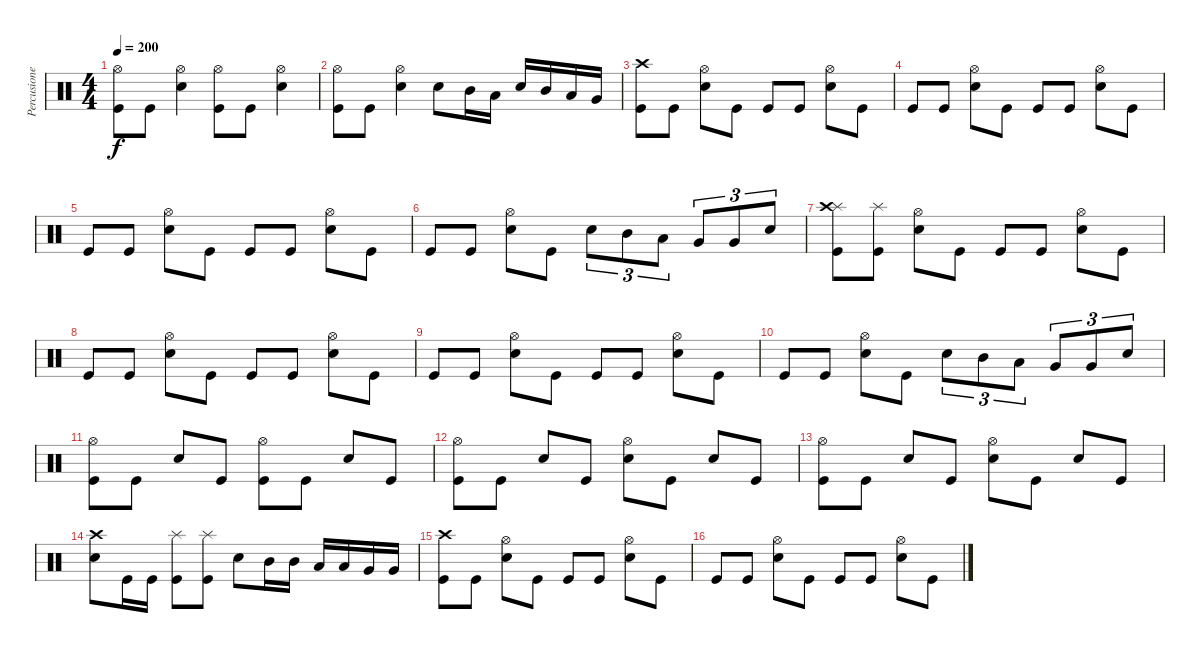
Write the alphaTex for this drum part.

\track ("Percusiones" "Percusione") {instrument percussion}
\staff {score}
\articulation defaults
\ts (4 4)
\tempo 200
\clef neutral
\ks c
("Kick (hit)" "Hi-Hat (open)").8{dy f} "Kick (hit)".8 ("Electric Snare (hit)" "Hi-Hat (open)").4 ("Kick (hit)" "Hi-Hat (open)").8 "Kick (hit)".8 ("Electric Snare (hit)" "Hi-Hat (open)").4 |
("Kick (hit)" "Hi-Hat (open)").8 "Kick (hit)".8 ("Electric Snare (hit)" "Hi-Hat (open)").4 "Electric Snare (hit)".8 "Mid Tom (hit)".16 "Low Tom (hit)".16 "Electric Snare (hit)".16 "Mid Tom (hit)".16 "Low Tom (hit)".16 "Very Low Tom (hit)".16 |
("Crash high (hit)" "Kick (hit)").8 "Kick (hit)".8 ("Hi-Hat (open)" "Electric Snare (hit)").8 "Kick (hit)".8 "Kick (hit)".8 "Kick (hit)".8 ("Hi-Hat (open)" "Electric Snare (hit)").8 "Kick (hit)".8 |
"Kick (hit)".8 "Kick (hit)".8 ("Hi-Hat (open)" "Electric Snare (hit)").8 "Kick (hit)".8 "Kick (hit)".8 "Kick (hit)".8 ("Hi-Hat (open)" "Electric Snare (hit)").8 "Kick (hit)".8 |
"Kick (hit)".8 "Kick (hit)".8 ("Hi-Hat (open)" "Electric Snare (hit)").8 "Kick (hit)".8 "Kick (hit)".8 "Kick (hit)".8 ("Hi-Hat (open)" "Electric Snare (hit)").8 "Kick (hit)".8 |
"Kick (hit)".8 "Kick (hit)".8 ("Hi-Hat (open)" "Electric Snare (hit)").8 "Kick (hit)".8 "Electric Snare (hit)".8{tu (3 2)} "Mid Tom (hit)".8{tu (3 2)} "Low Tom (hit)".8{tu (3 2)} "Very Low Tom (hit)".8{tu (3 2)} "Very Low Tom (hit)".8{tu (3 2)} "Electric Snare (hit)".8{tu (3 2)} |
("Splash (hit)" "Kick (hit)" "Crash high (hit)").8 ("Splash (hit)" "Kick (hit)").8 ("Hi-Hat (open)" "Electric Snare (hit)").8 "Kick (hit)".8 "Kick (hit)".8 "Kick (hit)".8 ("Hi-Hat (open)" "Electric Snare (hit)").8 "Kick (hit)".8 |
"Kick (hit)".8 "Kick (hit)".8 ("Hi-Hat (open)" "Electric Snare (hit)").8 "Kick (hit)".8 "Kick (hit)".8 "Kick (hit)".8 ("Hi-Hat (open)" "Electric Snare (hit)").8 "Kick (hit)".8 |
"Kick (hit)".8 "Kick (hit)".8 ("Hi-Hat (open)" "Electric Snare (hit)").8 "Kick (hit)".8 "Kick (hit)".8 "Kick (hit)".8 ("Hi-Hat (open)" "Electric Snare (hit)").8 "Kick (hit)".8 |
"Kick (hit)".8 "Kick (hit)".8 ("Hi-Hat (open)" "Electric Snare (hit)").8 "Kick (hit)".8 "Electric Snare (hit)".8{tu (3 2)} "Mid Tom (hit)".8{tu (3 2)} "Low Tom (hit)".8{tu (3 2)} "Very Low Tom (hit)".8{tu (3 2)} "Very Low Tom (hit)".8{tu (3 2)} "Electric Snare (hit)".8{tu (3 2)} |
("Hi-Hat (open)" "Kick (hit)").8 "Kick (hit)".8 "Electric Snare (hit)".8 "Kick (hit)".8 ("Hi-Hat (open)" "Kick (hit)").8 "Kick (hit)".8 "Electric Snare (hit)".8 "Kick (hit)".8 |
("Hi-Hat (open)" "Kick (hit)").8 "Kick (hit)".8 "Electric Snare (hit)".8 "Kick (hit)".8 ("Hi-Hat (open)" "Electric Snare (hit)").8 "Kick (hit)".8 "Electric Snare (hit)".8 "Kick (hit)".8 |
("Hi-Hat (open)" "Kick (hit)").8 "Kick (hit)".8 "Electric Snare (hit)".8 "Kick (hit)".8 ("Electric Snare (hit)" "Hi-Hat (open)").8 "Kick (hit)".8 "Electric Snare (hit)".8 "Kick (hit)".8 |
("Crash high (hit)" "Electric Snare (hit)").8 "Kick (hit)".16 "Kick (hit)".16 ("Splash (hit)" "Kick (hit)").8 ("Splash (hit)" "Kick (hit)").8 "Electric Snare (hit)".8 "Mid Tom (hit)".16 "Mid Tom (hit)".16 "Low Tom (hit)".16 "Low Tom (hit)".16 "Very Low Tom (hit)".16 "Very Low Tom (hit)".16 |
("Kick (hit)" "Crash high (hit)").8 "Kick (hit)".8 ("Hi-Hat (open)" "Electric Snare (hit)").8 "Kick (hit)".8 "Kick (hit)".8 "Kick (hit)".8 ("Hi-Hat (open)" "Electric Snare (hit)").8 "Kick (hit)".8 |
"Kick (hit)".8 "Kick (hit)".8 ("Hi-Hat (open)" "Electric Snare (hit)").8 "Kick (hit)".8 "Kick (hit)".8 "Kick (hit)".8 ("Hi-Hat (open)" "Electric Snare (hit)").8 "Kick (hit)".8
